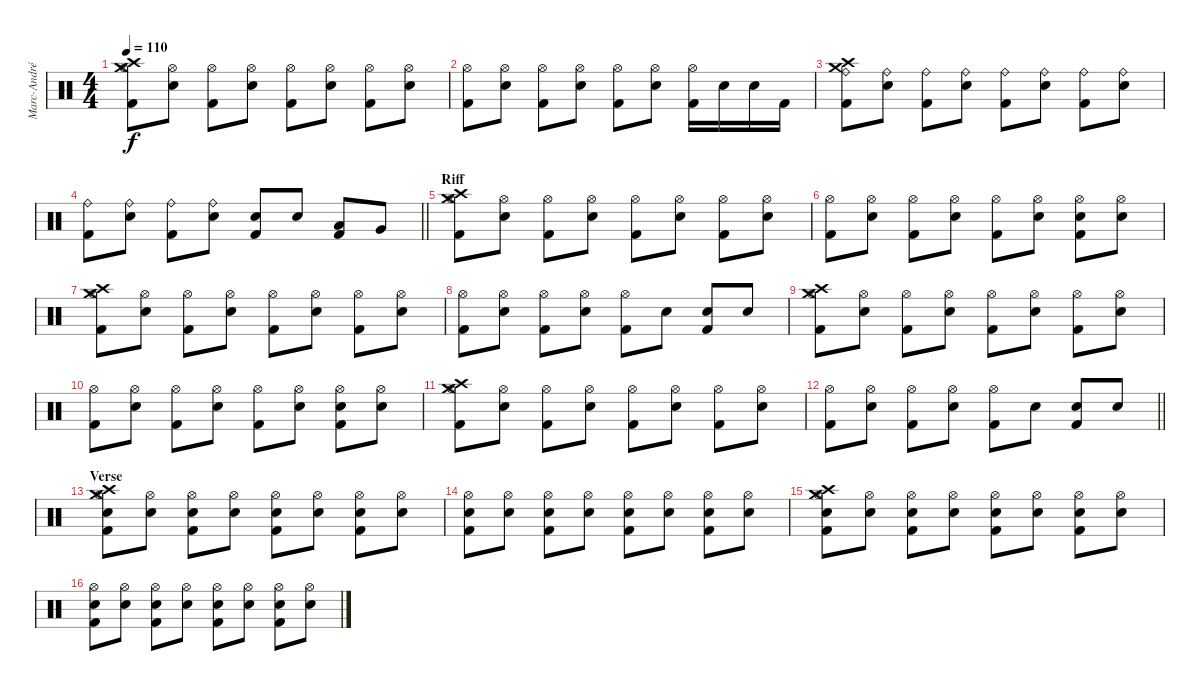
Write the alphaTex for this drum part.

\track ("Marc-André Barabé" "Marc-André") {instrument percussion}
\staff {score}
\articulation defaults
\ts (4 4)
\tempo 110
\clef neutral
\ks c
("Crash high (hit)" "Crash medium (hit)" "Hi-Hat (open)" "Kick (hit) 2"{tr (2 32)}).8{dy f} ("Hi-Hat (open)" "Electric Snare (hit)").8 ("Hi-Hat (open)" "Kick (hit) 2"{tr (2 32)}).8 ("Hi-Hat (open)" "Electric Snare (hit)").8 ("Hi-Hat (open)" "Kick (hit) 2"{tr (2 32)}).8 ("Hi-Hat (open)" "Electric Snare (hit)").8 ("Hi-Hat (open)" "Kick (hit) 2"{tr (2 32)}).8 ("Hi-Hat (open)" "Electric Snare (hit)").8 |
("Hi-Hat (open)" "Kick (hit) 2"{tr (2 32)}).8 ("Hi-Hat (open)" "Electric Snare (hit)").8 ("Hi-Hat (open)" "Kick (hit) 2"{tr (2 32)}).8 ("Hi-Hat (open)" "Electric Snare (hit)").8 ("Hi-Hat (open)" "Kick (hit) 2"{tr (2 32)}).8 ("Hi-Hat (open)" "Electric Snare (hit)").8 ("Hi-Hat (open)" "Kick (hit) 2"{tr (2 32)}).16 "Electric Snare (hit)".16 "Electric Snare (hit)".16 "Kick (hit) 2".16 |
("Crash high (hit)" "Crash medium (hit)" "Ride (bell)" "Kick (hit) 2"{tr (2 32)}).8 ("Ride (bell)" "Electric Snare (hit)").8 ("Ride (bell)" "Kick (hit) 2"{tr (2 32)}).8 ("Ride (bell)" "Electric Snare (hit)").8 ("Ride (bell)" "Kick (hit) 2"{tr (2 32)}).8 ("Ride (bell)" "Electric Snare (hit)").8 ("Ride (bell)" "Kick (hit) 2"{tr (2 32)}).8 ("Ride (bell)" "Electric Snare (hit)").8 |
\barLineRight lightlight
("Ride (bell)" "Kick (hit) 2"{tr (2 32)}).8 ("Ride (bell)" "Electric Snare (hit)").8 ("Ride (bell)" "Kick (hit) 2"{tr (2 32)}).8 ("Ride (bell)" "Electric Snare (hit)").8 ("Electric Snare (hit)"{tr (40 32)} "Kick (hit) 2"{tr (2 32)}).8 "Electric Snare (hit)"{tr (40 32)}.8 ("Low Tom (hit)"{tr (45 32)} "Kick (hit) 2"{tr (2 32)}).8 "Very Low Tom (hit)"{tr (43 32)}.8 |
\section ("" "Riff")
("Crash high (hit)" "Crash medium (hit)" "Hi-Hat (open)" "Kick (hit) 2"{tr (2 32)}).8 ("Hi-Hat (open)" "Electric Snare (hit)").8 ("Hi-Hat (open)" "Kick (hit) 2"{tr (2 32)}).8 ("Hi-Hat (open)" "Electric Snare (hit)").8 ("Hi-Hat (open)" "Kick (hit) 2"{tr (2 32)}).8 ("Hi-Hat (open)" "Electric Snare (hit)").8 ("Hi-Hat (open)" "Kick (hit) 2"{tr (2 32)}).8 ("Hi-Hat (open)" "Electric Snare (hit)").8 |
("Hi-Hat (open)" "Kick (hit) 2"{tr (2 32)}).8 ("Hi-Hat (open)" "Electric Snare (hit)").8 ("Hi-Hat (open)" "Kick (hit) 2"{tr (2 32)}).8 ("Hi-Hat (open)" "Electric Snare (hit)").8 ("Hi-Hat (open)" "Kick (hit) 2"{tr (2 32)}).8 ("Hi-Hat (open)" "Electric Snare (hit)").8 ("Hi-Hat (open)" "Electric Snare (hit)" "Kick (hit) 2"{tr (2 32)}).8 ("Hi-Hat (open)" "Electric Snare (hit)").8 |
("Crash high (hit)" "Crash medium (hit)" "Hi-Hat (open)" "Kick (hit) 2"{tr (2 32)}).8 ("Hi-Hat (open)" "Electric Snare (hit)").8 ("Hi-Hat (open)" "Kick (hit) 2"{tr (2 32)}).8 ("Hi-Hat (open)" "Electric Snare (hit)").8 ("Hi-Hat (open)" "Kick (hit) 2"{tr (2 32)}).8 ("Hi-Hat (open)" "Electric Snare (hit)").8 ("Hi-Hat (open)" "Kick (hit) 2"{tr (2 32)}).8 ("Hi-Hat (open)" "Electric Snare (hit)").8 |
("Hi-Hat (open)" "Kick (hit) 2"{tr (2 32)}).8 ("Hi-Hat (open)" "Electric Snare (hit)").8 ("Hi-Hat (open)" "Kick (hit) 2"{tr (2 32)}).8 ("Hi-Hat (open)" "Electric Snare (hit)").8 ("Hi-Hat (open)" "Kick (hit) 2"{tr (2 32)}).8 "Electric Snare (hit)"{tr (40 32)}.8 ("Electric Snare (hit)"{tr (40 32)} "Kick (hit) 2"{tr (2 32)}).8 "Electric Snare (hit)"{tr (40 32)}.8 |
("Crash high (hit)" "Crash medium (hit)" "Hi-Hat (open)" "Kick (hit) 2"{tr (2 32)}).8 ("Hi-Hat (open)" "Electric Snare (hit)").8 ("Hi-Hat (open)" "Kick (hit) 2"{tr (2 32)}).8 ("Hi-Hat (open)" "Electric Snare (hit)").8 ("Hi-Hat (open)" "Kick (hit) 2"{tr (2 32)}).8 ("Hi-Hat (open)" "Electric Snare (hit)").8 ("Hi-Hat (open)" "Kick (hit) 2"{tr (2 32)}).8 ("Hi-Hat (open)" "Electric Snare (hit)").8 |
("Hi-Hat (open)" "Kick (hit) 2"{tr (2 32)}).8 ("Hi-Hat (open)" "Electric Snare (hit)").8 ("Hi-Hat (open)" "Kick (hit) 2"{tr (2 32)}).8 ("Hi-Hat (open)" "Electric Snare (hit)").8 ("Hi-Hat (open)" "Kick (hit) 2"{tr (2 32)}).8 ("Hi-Hat (open)" "Electric Snare (hit)").8 ("Hi-Hat (open)" "Electric Snare (hit)" "Kick (hit) 2"{tr (2 32)}).8 ("Hi-Hat (open)" "Electric Snare (hit)").8 |
("Crash high (hit)" "Crash medium (hit)" "Hi-Hat (open)" "Kick (hit) 2"{tr (2 32)}).8 ("Hi-Hat (open)" "Electric Snare (hit)").8 ("Hi-Hat (open)" "Kick (hit) 2"{tr (2 32)}).8 ("Hi-Hat (open)" "Electric Snare (hit)").8 ("Hi-Hat (open)" "Kick (hit) 2"{tr (2 32)}).8 ("Hi-Hat (open)" "Electric Snare (hit)").8 ("Hi-Hat (open)" "Kick (hit) 2"{tr (2 32)}).8 ("Hi-Hat (open)" "Electric Snare (hit)").8 |
\barLineRight lightlight
("Hi-Hat (open)" "Kick (hit) 2"{tr (2 32)}).8 ("Hi-Hat (open)" "Electric Snare (hit)").8 ("Hi-Hat (open)" "Kick (hit) 2"{tr (2 32)}).8 ("Hi-Hat (open)" "Electric Snare (hit)").8 ("Hi-Hat (open)" "Kick (hit) 2"{tr (2 32)}).8 "Electric Snare (hit)"{tr (40 32)}.8 ("Electric Snare (hit)"{tr (40 32)} "Kick (hit) 2"{tr (2 32)}).8 "Electric Snare (hit)"{tr (40 32)}.8 |
\section ("" "Verse")
("Crash high (hit)" "Crash medium (hit)" "Hi-Hat (open)" "Electric Snare (hit)" "Kick (hit) 2"{tr (2 32)}).8 ("Hi-Hat (open)" "Electric Snare (hit)").8 ("Hi-Hat (open)" "Electric Snare (hit)" "Kick (hit) 2"{tr (2 32)}).8 ("Hi-Hat (open)" "Electric Snare (hit)").8 ("Hi-Hat (open)" "Electric Snare (hit)" "Kick (hit) 2"{tr (2 32)}).8 ("Hi-Hat (open)" "Electric Snare (hit)").8 ("Hi-Hat (open)" "Electric Snare (hit)" "Kick (hit) 2"{tr (2 32)}).8 ("Hi-Hat (open)" "Electric Snare (hit)").8 |
("Hi-Hat (open)" "Electric Snare (hit)" "Kick (hit) 2"{tr (2 32)}).8 ("Hi-Hat (open)" "Electric Snare (hit)").8 ("Hi-Hat (open)" "Electric Snare (hit)" "Kick (hit) 2"{tr (2 32)}).8 ("Hi-Hat (open)" "Electric Snare (hit)").8 ("Hi-Hat (open)" "Electric Snare (hit)" "Kick (hit) 2"{tr (2 32)}).8 ("Hi-Hat (open)" "Electric Snare (hit)").8 ("Hi-Hat (open)" "Electric Snare (hit)" "Kick (hit) 2"{tr (2 32)}).8 ("Hi-Hat (open)" "Electric Snare (hit)").8 |
("Crash high (hit)" "Crash medium (hit)" "Hi-Hat (open)" "Electric Snare (hit)" "Kick (hit) 2"{tr (2 32)}).8 ("Hi-Hat (open)" "Electric Snare (hit)").8 ("Hi-Hat (open)" "Electric Snare (hit)" "Kick (hit) 2"{tr (2 32)}).8 ("Hi-Hat (open)" "Electric Snare (hit)").8 ("Hi-Hat (open)" "Electric Snare (hit)" "Kick (hit) 2"{tr (2 32)}).8 ("Hi-Hat (open)" "Electric Snare (hit)").8 ("Hi-Hat (open)" "Electric Snare (hit)" "Kick (hit) 2"{tr (2 32)}).8 ("Hi-Hat (open)" "Electric Snare (hit)").8 |
("Hi-Hat (open)" "Electric Snare (hit)" "Kick (hit) 2"{tr (2 32)}).8 ("Hi-Hat (open)" "Electric Snare (hit)").8 ("Hi-Hat (open)" "Electric Snare (hit)" "Kick (hit) 2"{tr (2 32)}).8 ("Hi-Hat (open)" "Electric Snare (hit)").8 ("Hi-Hat (open)" "Electric Snare (hit)" "Kick (hit) 2"{tr (2 32)}).8 ("Hi-Hat (open)" "Electric Snare (hit)").8 ("Hi-Hat (open)" "Electric Snare (hit)" "Kick (hit) 2"{tr (2 32)}).8 ("Hi-Hat (open)" "Electric Snare (hit)").8
